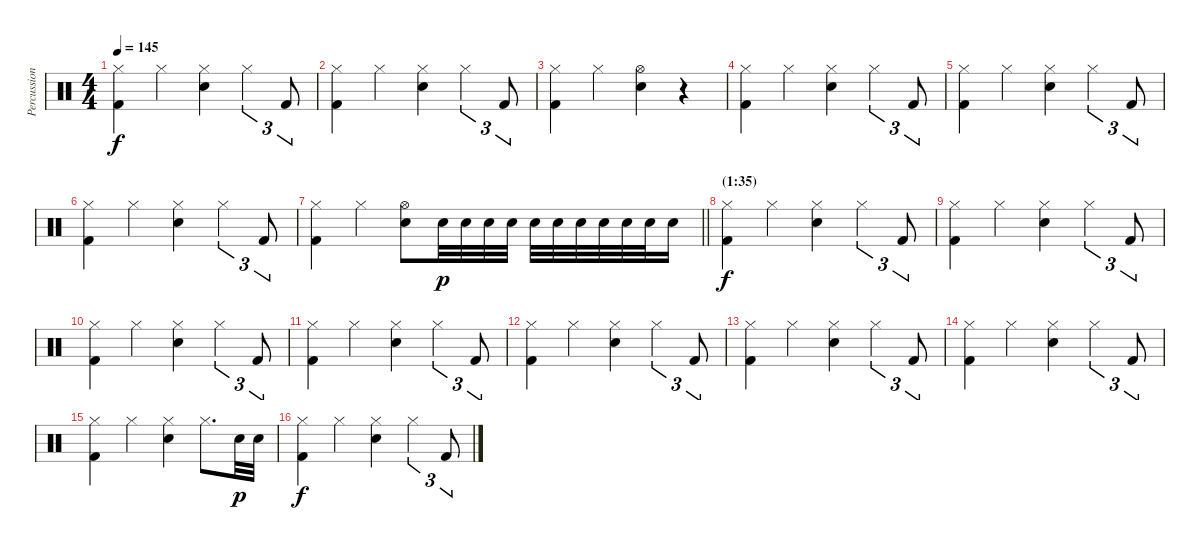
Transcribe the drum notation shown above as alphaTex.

\track ("Percussion" "Percussion") {instrument percussion}
\staff {score}
\articulation defaults
\ts (4 4)
\tempo 145
\clef neutral
\ks c
("Hi-Hat (closed)" "Kick (hit) 2").4{dy f} "Hi-Hat (closed)".4 ("Hi-Hat (closed)" "Electric Snare (hit)").4 "Hi-Hat (closed)".4{tu (3 2)} "Kick (hit) 2".8{tu (3 2)} |
("Hi-Hat (closed)" "Kick (hit) 2").4 "Hi-Hat (closed)".4 ("Hi-Hat (closed)" "Electric Snare (hit)").4 "Hi-Hat (closed)".4{tu (3 2)} "Kick (hit) 2".8{tu (3 2)} |
("Hi-Hat (closed)" "Kick (hit) 2").4 "Hi-Hat (closed)".4 ("Hi-Hat (open)" "Electric Snare (hit)").4 r.4 |
("Hi-Hat (closed)" "Kick (hit) 2").4 "Hi-Hat (closed)".4 ("Hi-Hat (closed)" "Electric Snare (hit)").4 "Hi-Hat (closed)".4{tu (3 2)} "Kick (hit) 2".8{tu (3 2)} |
("Hi-Hat (closed)" "Kick (hit) 2").4 "Hi-Hat (closed)".4 ("Hi-Hat (closed)" "Electric Snare (hit)").4 "Hi-Hat (closed)".4{tu (3 2)} "Kick (hit) 2".8{tu (3 2)} |
("Hi-Hat (closed)" "Kick (hit) 2").4 "Hi-Hat (closed)".4 ("Hi-Hat (closed)" "Electric Snare (hit)").4 "Hi-Hat (closed)".4{tu (3 2)} "Kick (hit) 2".8{tu (3 2)} |
\barLineRight lightlight
("Hi-Hat (closed)" "Kick (hit) 2").4 "Hi-Hat (closed)".4 ("Hi-Hat (open)" "Electric Snare (hit)").8 "Electric Snare (hit)".32{dy p} "Electric Snare (hit)".32 "Electric Snare (hit)".32 "Electric Snare (hit)".32 "Electric Snare (hit)".32 "Electric Snare (hit)".32 "Electric Snare (hit)".32 "Electric Snare (hit)".32 "Electric Snare (hit)".32 "Electric Snare (hit)".32 "Electric Snare (hit)".16 |
\section ("" "(1:35)")
("Hi-Hat (closed)" "Kick (hit) 2").4{dy f} "Hi-Hat (closed)".4 ("Hi-Hat (closed)" "Electric Snare (hit)").4 "Hi-Hat (closed)".4{tu (3 2)} "Kick (hit) 2".8{tu (3 2)} |
("Hi-Hat (closed)" "Kick (hit) 2").4 "Hi-Hat (closed)".4 ("Hi-Hat (closed)" "Electric Snare (hit)").4 "Hi-Hat (closed)".4{tu (3 2)} "Kick (hit) 2".8{tu (3 2)} |
("Hi-Hat (closed)" "Kick (hit) 2").4 "Hi-Hat (closed)".4 ("Hi-Hat (closed)" "Electric Snare (hit)").4 "Hi-Hat (closed)".4{tu (3 2)} "Kick (hit) 2".8{tu (3 2)} |
("Hi-Hat (closed)" "Kick (hit) 2").4 "Hi-Hat (closed)".4 ("Hi-Hat (closed)" "Electric Snare (hit)").4 "Hi-Hat (closed)".4{tu (3 2)} "Kick (hit) 2".8{tu (3 2)} |
("Hi-Hat (closed)" "Kick (hit) 2").4 "Hi-Hat (closed)".4 ("Hi-Hat (closed)" "Electric Snare (hit)").4 "Hi-Hat (closed)".4{tu (3 2)} "Kick (hit) 2".8{tu (3 2)} |
("Hi-Hat (closed)" "Kick (hit) 2").4 "Hi-Hat (closed)".4 ("Hi-Hat (closed)" "Electric Snare (hit)").4 "Hi-Hat (closed)".4{tu (3 2)} "Kick (hit) 2".8{tu (3 2)} |
("Hi-Hat (closed)" "Kick (hit) 2").4 "Hi-Hat (closed)".4 ("Hi-Hat (closed)" "Electric Snare (hit)").4 "Hi-Hat (closed)".4{tu (3 2)} "Kick (hit) 2".8{tu (3 2)} |
("Hi-Hat (closed)" "Kick (hit) 2").4 "Hi-Hat (closed)".4 ("Hi-Hat (closed)" "Electric Snare (hit)").4 "Hi-Hat (closed)".8{d} "Electric Snare (hit)".32{dy p} "Electric Snare (hit)".32 |
("Hi-Hat (closed)" "Kick (hit) 2").4{dy f} "Hi-Hat (closed)".4 ("Hi-Hat (closed)" "Electric Snare (hit)").4 "Hi-Hat (closed)".4{tu (3 2)} "Kick (hit) 2".8{tu (3 2)}
